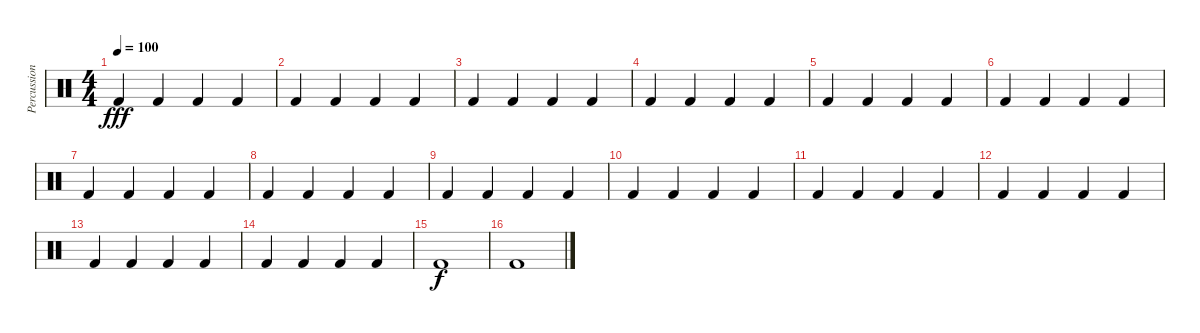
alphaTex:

\track ("Percussions" "Percussion") {instrument percussion}
\staff {score}
\articulation defaults
\ts (4 4)
\tempo 100
\clef neutral
\ks c "Kick (hit) 2".4{dy fff} "Kick (hit) 2".4 "Kick (hit) 2".4 "Kick (hit) 2".4
|
"Kick (hit) 2".4 "Kick (hit) 2".4 "Kick (hit) 2".4 "Kick (hit) 2".4 |
"Kick (hit) 2".4 "Kick (hit) 2".4 "Kick (hit) 2".4 "Kick (hit) 2".4 |
"Kick (hit) 2".4 "Kick (hit) 2".4 "Kick (hit) 2".4 "Kick (hit) 2".4 |
"Kick (hit) 2".4 "Kick (hit) 2".4 "Kick (hit) 2".4 "Kick (hit) 2".4 |
"Kick (hit) 2".4 "Kick (hit) 2".4 "Kick (hit) 2".4 "Kick (hit) 2".4 |
"Kick (hit) 2".4 "Kick (hit) 2".4 "Kick (hit) 2".4 "Kick (hit) 2".4 |
"Kick (hit) 2".4 "Kick (hit) 2".4 "Kick (hit) 2".4 "Kick (hit) 2".4 |
"Kick (hit) 2".4 "Kick (hit) 2".4 "Kick (hit) 2".4 "Kick (hit) 2".4 |
"Kick (hit) 2".4 "Kick (hit) 2".4 "Kick (hit) 2".4 "Kick (hit) 2".4 |
"Kick (hit) 2".4 "Kick (hit) 2".4 "Kick (hit) 2".4 "Kick (hit) 2".4 |
"Kick (hit) 2".4 "Kick (hit) 2".4 "Kick (hit) 2".4 "Kick (hit) 2".4 |
"Kick (hit) 2".4 "Kick (hit) 2".4 "Kick (hit) 2".4 "Kick (hit) 2".4 |
"Kick (hit) 2".4 "Kick (hit) 2".4 "Kick (hit) 2".4 "Kick (hit) 2".4 |
"Kick (hit) 2".1{dy f} |
"Kick (hit) 2".1
